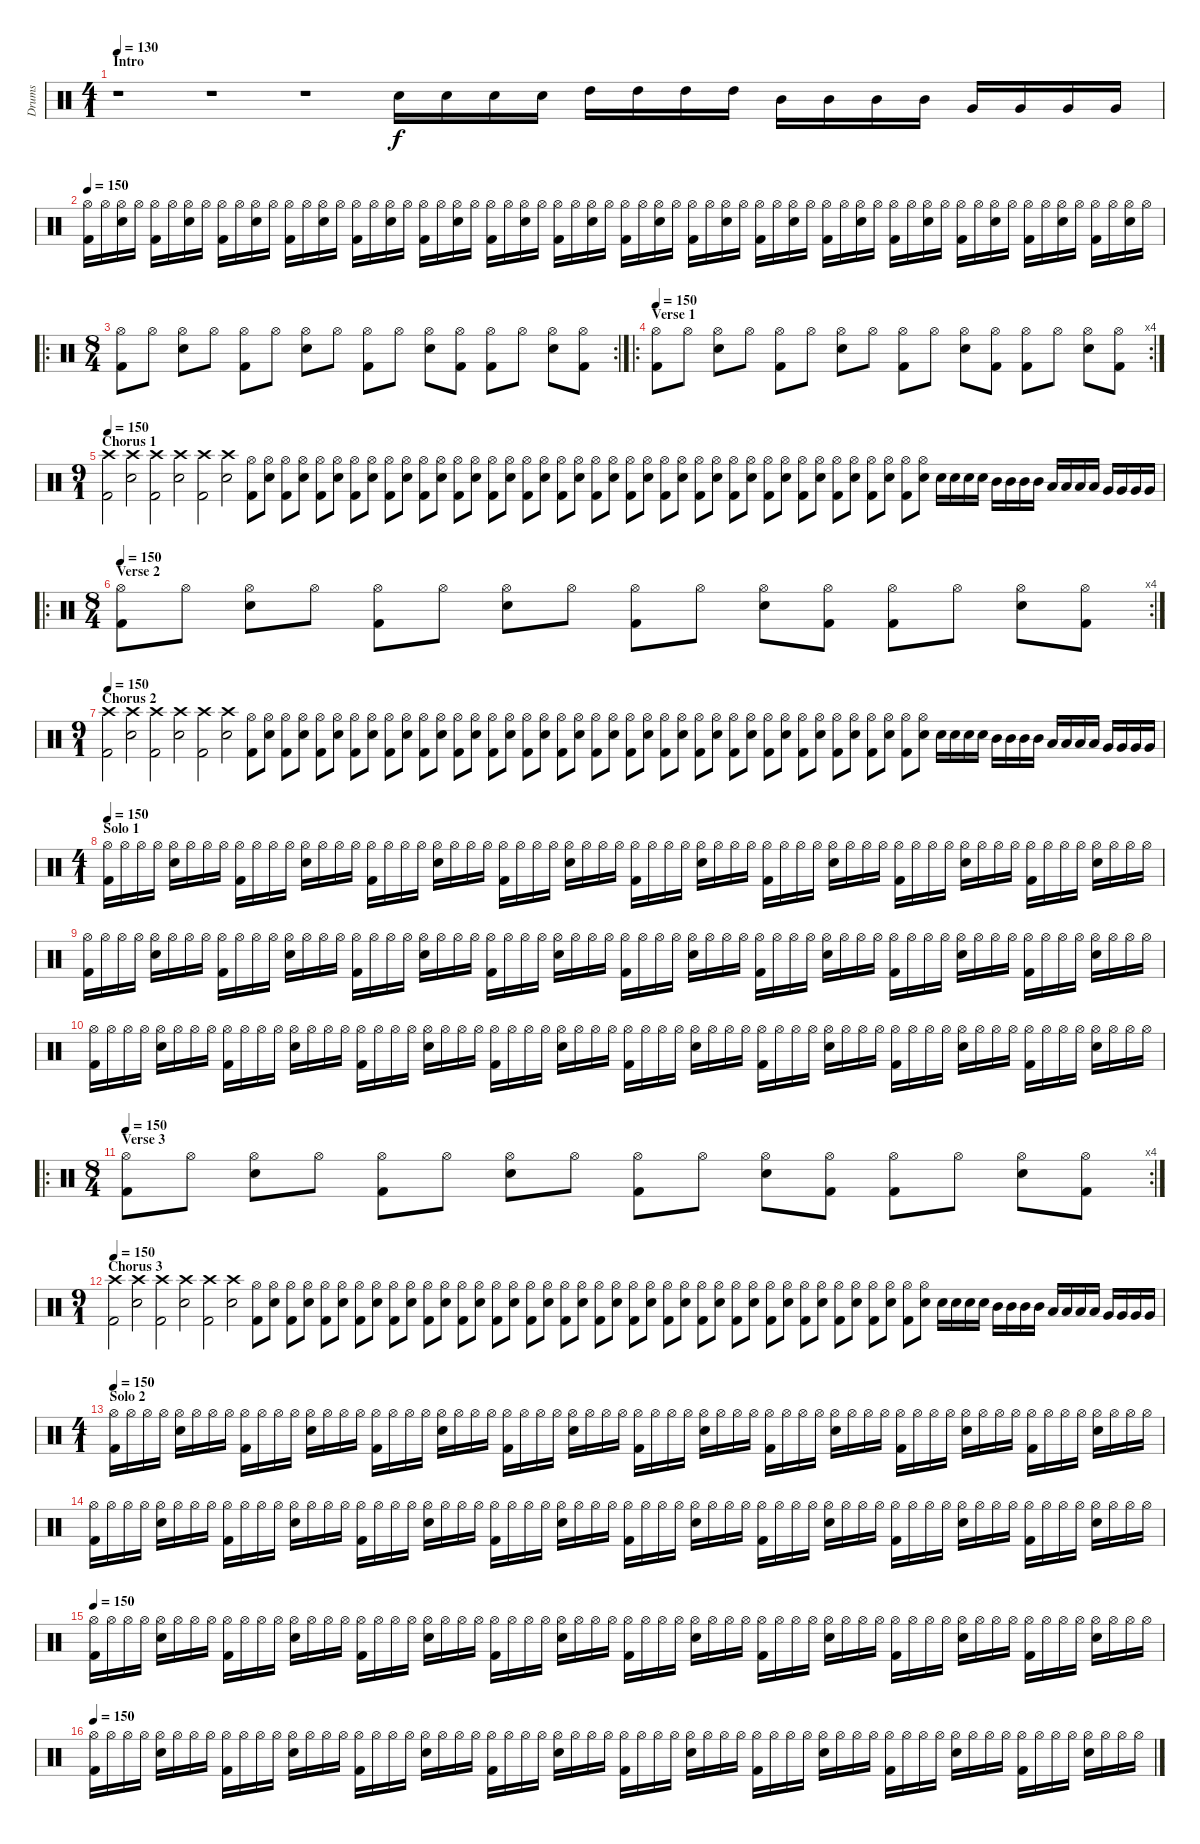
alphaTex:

\track ("Drums" "Drums") {instrument percussion}
\staff {score}
\articulation defaults
\ts (4 1)
\section ("" "Intro")
\tempo 130
\tempo 26
\tempo 130
\clef neutral
\ks c
r.1{dy f} r.1 r.1 "Electric Snare (hit)".16 "Electric Snare (hit)".16 "Electric Snare (hit)".16 "Electric Snare (hit)".16 "High Tom (hit)".16 "High Tom (hit)".16 "High Tom (hit)".16 "High Tom (hit)".16 "Mid Tom (hit)".16 "Mid Tom (hit)".16 "Mid Tom (hit)".16 "Mid Tom (hit)".16 "Very Low Tom (hit)".16 "Very Low Tom (hit)".16 "Very Low Tom (hit)".16 "Very Low Tom (hit)".16 |
\tempo 150
("Hi-Hat (open)" "Kick (hit) 2").16 "Hi-Hat (open)".16 ("Hi-Hat (open)" "Electric Snare (hit)").16 "Hi-Hat (open)".16 ("Hi-Hat (open)" "Kick (hit) 2").16 "Hi-Hat (open)".16 ("Hi-Hat (open)" "Electric Snare (hit)").16 "Hi-Hat (open)".16 ("Hi-Hat (open)" "Kick (hit) 2").16 "Hi-Hat (open)".16 ("Hi-Hat (open)" "Electric Snare (hit)").16 "Hi-Hat (open)".16 ("Hi-Hat (open)" "Kick (hit) 2").16 "Hi-Hat (open)".16 ("Hi-Hat (open)" "Electric Snare (hit)").16 "Hi-Hat (open)".16 ("Hi-Hat (open)" "Kick (hit) 2").16 "Hi-Hat (open)".16 ("Hi-Hat (open)" "Electric Snare (hit)").16 "Hi-Hat (open)".16 ("Hi-Hat (open)" "Kick (hit) 2").16 "Hi-Hat (open)".16 ("Hi-Hat (open)" "Electric Snare (hit)").16 "Hi-Hat (open)".16 ("Hi-Hat (open)" "Kick (hit) 2").16 "Hi-Hat (open)".16 ("Hi-Hat (open)" "Electric Snare (hit)").16 "Hi-Hat (open)".16 ("Hi-Hat (open)" "Kick (hit) 2").16 "Hi-Hat (open)".16 ("Hi-Hat (open)" "Electric Snare (hit)").16 "Hi-Hat (open)".16 ("Hi-Hat (open)" "Kick (hit) 2").16 "Hi-Hat (open)".16 ("Hi-Hat (open)" "Electric Snare (hit)").16 "Hi-Hat (open)".16 ("Hi-Hat (open)" "Kick (hit) 2").16 "Hi-Hat (open)".16 ("Hi-Hat (open)" "Electric Snare (hit)").16 "Hi-Hat (open)".16 ("Hi-Hat (open)" "Kick (hit) 2").16 "Hi-Hat (open)".16 ("Hi-Hat (open)" "Electric Snare (hit)").16 "Hi-Hat (open)".16 ("Hi-Hat (open)" "Kick (hit) 2").16 "Hi-Hat (open)".16 ("Hi-Hat (open)" "Electric Snare (hit)").16 "Hi-Hat (open)".16 ("Hi-Hat (open)" "Kick (hit) 2").16 "Hi-Hat (open)".16 ("Hi-Hat (open)" "Electric Snare (hit)").16 "Hi-Hat (open)".16 ("Hi-Hat (open)" "Kick (hit) 2").16 "Hi-Hat (open)".16 ("Hi-Hat (open)" "Electric Snare (hit)").16 "Hi-Hat (open)".16 ("Hi-Hat (open)" "Kick (hit) 2").16 "Hi-Hat (open)".16 ("Hi-Hat (open)" "Electric Snare (hit)").16 "Hi-Hat (open)".16 ("Hi-Hat (open)" "Kick (hit) 2").16 "Hi-Hat (open)".16 ("Hi-Hat (open)" "Electric Snare (hit)").16 "Hi-Hat (open)".16 |
\ro
\rc 2
\ts (8 4)
("Hi-Hat (open)" "Kick (hit) 2").8 "Hi-Hat (open)".8 ("Hi-Hat (open)" "Electric Snare (hit)").8 "Hi-Hat (open)".8 ("Hi-Hat (open)" "Kick (hit) 2").8 "Hi-Hat (open)".8 ("Hi-Hat (open)" "Electric Snare (hit)").8 "Hi-Hat (open)".8 ("Hi-Hat (open)" "Kick (hit) 2").8 "Hi-Hat (open)".8 ("Hi-Hat (open)" "Electric Snare (hit)").8 ("Hi-Hat (open)" "Kick (hit) 2").8 ("Hi-Hat (open)" "Kick (hit) 2").8 "Hi-Hat (open)".8 ("Hi-Hat (open)" "Electric Snare (hit)").8 ("Hi-Hat (open)" "Kick (hit) 2").8 |
\ro
\rc 4
\section ("" "Verse 1")
\tempo 150
("Hi-Hat (open)" "Kick (hit) 2").8 "Hi-Hat (open)".8 ("Hi-Hat (open)" "Electric Snare (hit)").8 "Hi-Hat (open)".8 ("Hi-Hat (open)" "Kick (hit) 2").8 "Hi-Hat (open)".8 ("Hi-Hat (open)" "Electric Snare (hit)").8 "Hi-Hat (open)".8 ("Hi-Hat (open)" "Kick (hit) 2").8 "Hi-Hat (open)".8 ("Hi-Hat (open)" "Electric Snare (hit)").8 ("Hi-Hat (open)" "Kick (hit) 2").8 ("Hi-Hat (open)" "Kick (hit) 2").8 "Hi-Hat (open)".8 ("Hi-Hat (open)" "Electric Snare (hit)").8 ("Hi-Hat (open)" "Kick (hit) 2").8 |
\ts (9 1)
\section ("" "Chorus 1")
\tempo 150
("Crash high (hit)" "Kick (hit) 2").2 ("Crash high (hit)" "Electric Snare (hit)").2 ("Crash high (hit)" "Kick (hit) 2").2 ("Crash high (hit)" "Electric Snare (hit)").2 ("Crash high (hit)" "Kick (hit) 2").2 ("Crash high (hit)" "Electric Snare (hit)").2 ("Hi-Hat (open)" "Kick (hit) 2").8 ("Hi-Hat (open)" "Electric Snare (hit)").8 ("Hi-Hat (open)" "Kick (hit) 2").8 ("Hi-Hat (open)" "Electric Snare (hit)").8 ("Hi-Hat (open)" "Kick (hit) 2").8 ("Hi-Hat (open)" "Electric Snare (hit)").8 ("Hi-Hat (open)" "Kick (hit) 2").8 ("Hi-Hat (open)" "Electric Snare (hit)").8 ("Hi-Hat (open)" "Kick (hit) 2").8 ("Hi-Hat (open)" "Electric Snare (hit)").8 ("Hi-Hat (open)" "Kick (hit) 2").8 ("Hi-Hat (open)" "Electric Snare (hit)").8 ("Hi-Hat (open)" "Kick (hit) 2").8 ("Hi-Hat (open)" "Electric Snare (hit)").8 ("Hi-Hat (open)" "Kick (hit) 2").8 ("Hi-Hat (open)" "Electric Snare (hit)").8 ("Hi-Hat (open)" "Kick (hit) 2").8 ("Hi-Hat (open)" "Electric Snare (hit)").8 ("Hi-Hat (open)" "Kick (hit) 2").8 ("Hi-Hat (open)" "Electric Snare (hit)").8 ("Hi-Hat (open)" "Kick (hit) 2").8 ("Hi-Hat (open)" "Electric Snare (hit)").8 ("Hi-Hat (open)" "Kick (hit) 2").8 ("Hi-Hat (open)" "Electric Snare (hit)").8 ("Hi-Hat (open)" "Kick (hit) 2").8 ("Hi-Hat (open)" "Electric Snare (hit)").8 ("Hi-Hat (open)" "Kick (hit) 2").8 ("Hi-Hat (open)" "Electric Snare (hit)").8 ("Hi-Hat (open)" "Kick (hit) 2").8 ("Hi-Hat (open)" "Electric Snare (hit)").8 ("Hi-Hat (open)" "Kick (hit) 2").8 ("Hi-Hat (open)" "Electric Snare (hit)").8 ("Hi-Hat (open)" "Kick (hit) 2").8 ("Hi-Hat (open)" "Electric Snare (hit)").8 ("Hi-Hat (open)" "Kick (hit) 2").8 ("Hi-Hat (open)" "Electric Snare (hit)").8 ("Hi-Hat (open)" "Kick (hit) 2").8 ("Hi-Hat (open)" "Electric Snare (hit)").8 ("Hi-Hat (open)" "Kick (hit) 2").8 ("Hi-Hat (open)" "Electric Snare (hit)").8 "Electric Snare (hit)".16 "Electric Snare (hit)".16 "Electric Snare (hit)".16 "Electric Snare (hit)".16 "Mid Tom (hit)".16 "Mid Tom (hit)".16 "Mid Tom (hit)".16 "Mid Tom (hit)".16 "Low Tom (hit)".16 "Low Tom (hit)".16 "Low Tom (hit)".16 "Low Tom (hit)".16 "Very Low Tom (hit)".16 "Very Low Tom (hit)".16 "Very Low Tom (hit)".16 "Very Low Tom (hit)".16 |
\ro
\rc 4
\ts (8 4)
\section ("" "Verse 2")
\tempo 150
("Hi-Hat (open)" "Kick (hit) 2").8 "Hi-Hat (open)".8 ("Hi-Hat (open)" "Electric Snare (hit)").8 "Hi-Hat (open)".8 ("Hi-Hat (open)" "Kick (hit) 2").8 "Hi-Hat (open)".8 ("Hi-Hat (open)" "Electric Snare (hit)").8 "Hi-Hat (open)".8 ("Hi-Hat (open)" "Kick (hit) 2").8 "Hi-Hat (open)".8 ("Hi-Hat (open)" "Electric Snare (hit)").8 ("Hi-Hat (open)" "Kick (hit) 2").8 ("Hi-Hat (open)" "Kick (hit) 2").8 "Hi-Hat (open)".8 ("Hi-Hat (open)" "Electric Snare (hit)").8 ("Hi-Hat (open)" "Kick (hit) 2").8 |
\ts (9 1)
\section ("" "Chorus 2")
\tempo 150
("Crash high (hit)" "Kick (hit) 2").2 ("Crash high (hit)" "Electric Snare (hit)").2 ("Crash high (hit)" "Kick (hit) 2").2 ("Crash high (hit)" "Electric Snare (hit)").2 ("Crash high (hit)" "Kick (hit) 2").2 ("Crash high (hit)" "Electric Snare (hit)").2 ("Hi-Hat (open)" "Kick (hit) 2").8 ("Hi-Hat (open)" "Electric Snare (hit)").8 ("Hi-Hat (open)" "Kick (hit) 2").8 ("Hi-Hat (open)" "Electric Snare (hit)").8 ("Hi-Hat (open)" "Kick (hit) 2").8 ("Hi-Hat (open)" "Electric Snare (hit)").8 ("Hi-Hat (open)" "Kick (hit) 2").8 ("Hi-Hat (open)" "Electric Snare (hit)").8 ("Hi-Hat (open)" "Kick (hit) 2").8 ("Hi-Hat (open)" "Electric Snare (hit)").8 ("Hi-Hat (open)" "Kick (hit) 2").8 ("Hi-Hat (open)" "Electric Snare (hit)").8 ("Hi-Hat (open)" "Kick (hit) 2").8 ("Hi-Hat (open)" "Electric Snare (hit)").8 ("Hi-Hat (open)" "Kick (hit) 2").8 ("Hi-Hat (open)" "Electric Snare (hit)").8 ("Hi-Hat (open)" "Kick (hit) 2").8 ("Hi-Hat (open)" "Electric Snare (hit)").8 ("Hi-Hat (open)" "Kick (hit) 2").8 ("Hi-Hat (open)" "Electric Snare (hit)").8 ("Hi-Hat (open)" "Kick (hit) 2").8 ("Hi-Hat (open)" "Electric Snare (hit)").8 ("Hi-Hat (open)" "Kick (hit) 2").8 ("Hi-Hat (open)" "Electric Snare (hit)").8 ("Hi-Hat (open)" "Kick (hit) 2").8 ("Hi-Hat (open)" "Electric Snare (hit)").8 ("Hi-Hat (open)" "Kick (hit) 2").8 ("Hi-Hat (open)" "Electric Snare (hit)").8 ("Hi-Hat (open)" "Kick (hit) 2").8 ("Hi-Hat (open)" "Electric Snare (hit)").8 ("Hi-Hat (open)" "Kick (hit) 2").8 ("Hi-Hat (open)" "Electric Snare (hit)").8 ("Hi-Hat (open)" "Kick (hit) 2").8 ("Hi-Hat (open)" "Electric Snare (hit)").8 ("Hi-Hat (open)" "Kick (hit) 2").8 ("Hi-Hat (open)" "Electric Snare (hit)").8 ("Hi-Hat (open)" "Kick (hit) 2").8 ("Hi-Hat (open)" "Electric Snare (hit)").8 ("Hi-Hat (open)" "Kick (hit) 2").8 ("Hi-Hat (open)" "Electric Snare (hit)").8 "Electric Snare (hit)".16 "Electric Snare (hit)".16 "Electric Snare (hit)".16 "Electric Snare (hit)".16 "Mid Tom (hit)".16 "Mid Tom (hit)".16 "Mid Tom (hit)".16 "Mid Tom (hit)".16 "Low Tom (hit)".16 "Low Tom (hit)".16 "Low Tom (hit)".16 "Low Tom (hit)".16 "Very Low Tom (hit)".16 "Very Low Tom (hit)".16 "Very Low Tom (hit)".16 "Very Low Tom (hit)".16 |
\ts (4 1)
\section ("" "Solo 1")
\tempo 150
("Hi-Hat (open)" "Kick (hit) 2").16 "Hi-Hat (open)".16 "Hi-Hat (open)".16 "Hi-Hat (open)".16 ("Hi-Hat (open)" "Electric Snare (hit)").16 "Hi-Hat (open)".16 "Hi-Hat (open)".16 "Hi-Hat (open)".16 ("Hi-Hat (open)" "Kick (hit) 2").16 "Hi-Hat (open)".16 "Hi-Hat (open)".16 "Hi-Hat (open)".16 ("Hi-Hat (open)" "Electric Snare (hit)").16 "Hi-Hat (open)".16 "Hi-Hat (open)".16 "Hi-Hat (open)".16 ("Hi-Hat (open)" "Kick (hit) 2").16 "Hi-Hat (open)".16 "Hi-Hat (open)".16 "Hi-Hat (open)".16 ("Hi-Hat (open)" "Electric Snare (hit)").16 "Hi-Hat (open)".16 "Hi-Hat (open)".16 "Hi-Hat (open)".16 ("Hi-Hat (open)" "Kick (hit) 2").16 "Hi-Hat (open)".16 "Hi-Hat (open)".16 "Hi-Hat (open)".16 ("Hi-Hat (open)" "Electric Snare (hit)").16 "Hi-Hat (open)".16 "Hi-Hat (open)".16 "Hi-Hat (open)".16 ("Hi-Hat (open)" "Kick (hit) 2").16 "Hi-Hat (open)".16 "Hi-Hat (open)".16 "Hi-Hat (open)".16 ("Hi-Hat (open)" "Electric Snare (hit)").16 "Hi-Hat (open)".16 "Hi-Hat (open)".16 "Hi-Hat (open)".16 ("Hi-Hat (open)" "Kick (hit) 2").16 "Hi-Hat (open)".16 "Hi-Hat (open)".16 "Hi-Hat (open)".16 ("Hi-Hat (open)" "Electric Snare (hit)").16 "Hi-Hat (open)".16 "Hi-Hat (open)".16 "Hi-Hat (open)".16 ("Hi-Hat (open)" "Kick (hit) 2").16 "Hi-Hat (open)".16 "Hi-Hat (open)".16 "Hi-Hat (open)".16 ("Hi-Hat (open)" "Electric Snare (hit)").16 "Hi-Hat (open)".16 "Hi-Hat (open)".16 "Hi-Hat (open)".16 ("Hi-Hat (open)" "Kick (hit) 2").16 "Hi-Hat (open)".16 "Hi-Hat (open)".16 "Hi-Hat (open)".16 ("Hi-Hat (open)" "Electric Snare (hit)").16 "Hi-Hat (open)".16 "Hi-Hat (open)".16 "Hi-Hat (open)".16 |
("Hi-Hat (open)" "Kick (hit) 2").16 "Hi-Hat (open)".16 "Hi-Hat (open)".16 "Hi-Hat (open)".16 ("Hi-Hat (open)" "Electric Snare (hit)").16 "Hi-Hat (open)".16 "Hi-Hat (open)".16 "Hi-Hat (open)".16 ("Hi-Hat (open)" "Kick (hit) 2").16 "Hi-Hat (open)".16 "Hi-Hat (open)".16 "Hi-Hat (open)".16 ("Hi-Hat (open)" "Electric Snare (hit)").16 "Hi-Hat (open)".16 "Hi-Hat (open)".16 "Hi-Hat (open)".16 ("Hi-Hat (open)" "Kick (hit) 2").16 "Hi-Hat (open)".16 "Hi-Hat (open)".16 "Hi-Hat (open)".16 ("Hi-Hat (open)" "Electric Snare (hit)").16 "Hi-Hat (open)".16 "Hi-Hat (open)".16 "Hi-Hat (open)".16 ("Hi-Hat (open)" "Kick (hit) 2").16 "Hi-Hat (open)".16 "Hi-Hat (open)".16 "Hi-Hat (open)".16 ("Hi-Hat (open)" "Electric Snare (hit)").16 "Hi-Hat (open)".16 "Hi-Hat (open)".16 "Hi-Hat (open)".16 ("Hi-Hat (open)" "Kick (hit) 2").16 "Hi-Hat (open)".16 "Hi-Hat (open)".16 "Hi-Hat (open)".16 ("Hi-Hat (open)" "Electric Snare (hit)").16 "Hi-Hat (open)".16 "Hi-Hat (open)".16 "Hi-Hat (open)".16 ("Hi-Hat (open)" "Kick (hit) 2").16 "Hi-Hat (open)".16 "Hi-Hat (open)".16 "Hi-Hat (open)".16 ("Hi-Hat (open)" "Electric Snare (hit)").16 "Hi-Hat (open)".16 "Hi-Hat (open)".16 "Hi-Hat (open)".16 ("Hi-Hat (open)" "Kick (hit) 2").16 "Hi-Hat (open)".16 "Hi-Hat (open)".16 "Hi-Hat (open)".16 ("Hi-Hat (open)" "Electric Snare (hit)").16 "Hi-Hat (open)".16 "Hi-Hat (open)".16 "Hi-Hat (open)".16 ("Hi-Hat (open)" "Kick (hit) 2").16 "Hi-Hat (open)".16 "Hi-Hat (open)".16 "Hi-Hat (open)".16 ("Hi-Hat (open)" "Electric Snare (hit)").16 "Hi-Hat (open)".16 "Hi-Hat (open)".16 "Hi-Hat (open)".16 |
("Hi-Hat (open)" "Kick (hit) 2").16 "Hi-Hat (open)".16 "Hi-Hat (open)".16 "Hi-Hat (open)".16 ("Hi-Hat (open)" "Electric Snare (hit)").16 "Hi-Hat (open)".16 "Hi-Hat (open)".16 "Hi-Hat (open)".16 ("Hi-Hat (open)" "Kick (hit) 2").16 "Hi-Hat (open)".16 "Hi-Hat (open)".16 "Hi-Hat (open)".16 ("Hi-Hat (open)" "Electric Snare (hit)").16 "Hi-Hat (open)".16 "Hi-Hat (open)".16 "Hi-Hat (open)".16 ("Hi-Hat (open)" "Kick (hit) 2").16 "Hi-Hat (open)".16 "Hi-Hat (open)".16 "Hi-Hat (open)".16 ("Hi-Hat (open)" "Electric Snare (hit)").16 "Hi-Hat (open)".16 "Hi-Hat (open)".16 "Hi-Hat (open)".16 ("Hi-Hat (open)" "Kick (hit) 2").16 "Hi-Hat (open)".16 "Hi-Hat (open)".16 "Hi-Hat (open)".16 ("Hi-Hat (open)" "Electric Snare (hit)").16 "Hi-Hat (open)".16 "Hi-Hat (open)".16 "Hi-Hat (open)".16 ("Hi-Hat (open)" "Kick (hit) 2").16 "Hi-Hat (open)".16 "Hi-Hat (open)".16 "Hi-Hat (open)".16 ("Hi-Hat (open)" "Electric Snare (hit)").16 "Hi-Hat (open)".16 "Hi-Hat (open)".16 "Hi-Hat (open)".16 ("Hi-Hat (open)" "Kick (hit) 2").16 "Hi-Hat (open)".16 "Hi-Hat (open)".16 "Hi-Hat (open)".16 ("Hi-Hat (open)" "Electric Snare (hit)").16 "Hi-Hat (open)".16 "Hi-Hat (open)".16 "Hi-Hat (open)".16 ("Hi-Hat (open)" "Kick (hit) 2").16 "Hi-Hat (open)".16 "Hi-Hat (open)".16 "Hi-Hat (open)".16 ("Hi-Hat (open)" "Electric Snare (hit)").16 "Hi-Hat (open)".16 "Hi-Hat (open)".16 "Hi-Hat (open)".16 ("Hi-Hat (open)" "Kick (hit) 2").16 "Hi-Hat (open)".16 "Hi-Hat (open)".16 "Hi-Hat (open)".16 ("Hi-Hat (open)" "Electric Snare (hit)").16 "Hi-Hat (open)".16 "Hi-Hat (open)".16 "Hi-Hat (open)".16 |
\ro
\rc 4
\ts (8 4)
\section ("" "Verse 3")
\tempo 150
("Hi-Hat (open)" "Kick (hit) 2").8 "Hi-Hat (open)".8 ("Hi-Hat (open)" "Electric Snare (hit)").8 "Hi-Hat (open)".8 ("Hi-Hat (open)" "Kick (hit) 2").8 "Hi-Hat (open)".8 ("Hi-Hat (open)" "Electric Snare (hit)").8 "Hi-Hat (open)".8 ("Hi-Hat (open)" "Kick (hit) 2").8 "Hi-Hat (open)".8 ("Hi-Hat (open)" "Electric Snare (hit)").8 ("Hi-Hat (open)" "Kick (hit) 2").8 ("Hi-Hat (open)" "Kick (hit) 2").8 "Hi-Hat (open)".8 ("Hi-Hat (open)" "Electric Snare (hit)").8 ("Hi-Hat (open)" "Kick (hit) 2").8 |
\ts (9 1)
\section ("" "Chorus 3")
\tempo 150
("Crash high (hit)" "Kick (hit) 2").2 ("Crash high (hit)" "Electric Snare (hit)").2 ("Crash high (hit)" "Kick (hit) 2").2 ("Crash high (hit)" "Electric Snare (hit)").2 ("Crash high (hit)" "Kick (hit) 2").2 ("Crash high (hit)" "Electric Snare (hit)").2 ("Hi-Hat (open)" "Kick (hit) 2").8 ("Hi-Hat (open)" "Electric Snare (hit)").8 ("Hi-Hat (open)" "Kick (hit) 2").8 ("Hi-Hat (open)" "Electric Snare (hit)").8 ("Hi-Hat (open)" "Kick (hit) 2").8 ("Hi-Hat (open)" "Electric Snare (hit)").8 ("Hi-Hat (open)" "Kick (hit) 2").8 ("Hi-Hat (open)" "Electric Snare (hit)").8 ("Hi-Hat (open)" "Kick (hit) 2").8 ("Hi-Hat (open)" "Electric Snare (hit)").8 ("Hi-Hat (open)" "Kick (hit) 2").8 ("Hi-Hat (open)" "Electric Snare (hit)").8 ("Hi-Hat (open)" "Kick (hit) 2").8 ("Hi-Hat (open)" "Electric Snare (hit)").8 ("Hi-Hat (open)" "Kick (hit) 2").8 ("Hi-Hat (open)" "Electric Snare (hit)").8 ("Hi-Hat (open)" "Kick (hit) 2").8 ("Hi-Hat (open)" "Electric Snare (hit)").8 ("Hi-Hat (open)" "Kick (hit) 2").8 ("Hi-Hat (open)" "Electric Snare (hit)").8 ("Hi-Hat (open)" "Kick (hit) 2").8 ("Hi-Hat (open)" "Electric Snare (hit)").8 ("Hi-Hat (open)" "Kick (hit) 2").8 ("Hi-Hat (open)" "Electric Snare (hit)").8 ("Hi-Hat (open)" "Kick (hit) 2").8 ("Hi-Hat (open)" "Electric Snare (hit)").8 ("Hi-Hat (open)" "Kick (hit) 2").8 ("Hi-Hat (open)" "Electric Snare (hit)").8 ("Hi-Hat (open)" "Kick (hit) 2").8 ("Hi-Hat (open)" "Electric Snare (hit)").8 ("Hi-Hat (open)" "Kick (hit) 2").8 ("Hi-Hat (open)" "Electric Snare (hit)").8 ("Hi-Hat (open)" "Kick (hit) 2").8 ("Hi-Hat (open)" "Electric Snare (hit)").8 ("Hi-Hat (open)" "Kick (hit) 2").8 ("Hi-Hat (open)" "Electric Snare (hit)").8 ("Hi-Hat (open)" "Kick (hit) 2").8 ("Hi-Hat (open)" "Electric Snare (hit)").8 ("Hi-Hat (open)" "Kick (hit) 2").8 ("Hi-Hat (open)" "Electric Snare (hit)").8 "Electric Snare (hit)".16 "Electric Snare (hit)".16 "Electric Snare (hit)".16 "Electric Snare (hit)".16 "Mid Tom (hit)".16 "Mid Tom (hit)".16 "Mid Tom (hit)".16 "Mid Tom (hit)".16 "Low Tom (hit)".16 "Low Tom (hit)".16 "Low Tom (hit)".16 "Low Tom (hit)".16 "Very Low Tom (hit)".16 "Very Low Tom (hit)".16 "Very Low Tom (hit)".16 "Very Low Tom (hit)".16 |
\ts (4 1)
\section ("" "Solo 2")
\tempo 150
("Hi-Hat (open)" "Kick (hit) 2").16 "Hi-Hat (open)".16 "Hi-Hat (open)".16 "Hi-Hat (open)".16 ("Hi-Hat (open)" "Electric Snare (hit)").16 "Hi-Hat (open)".16 "Hi-Hat (open)".16 "Hi-Hat (open)".16 ("Hi-Hat (open)" "Kick (hit) 2").16 "Hi-Hat (open)".16 "Hi-Hat (open)".16 "Hi-Hat (open)".16 ("Hi-Hat (open)" "Electric Snare (hit)").16 "Hi-Hat (open)".16 "Hi-Hat (open)".16 "Hi-Hat (open)".16 ("Hi-Hat (open)" "Kick (hit) 2").16 "Hi-Hat (open)".16 "Hi-Hat (open)".16 "Hi-Hat (open)".16 ("Hi-Hat (open)" "Electric Snare (hit)").16 "Hi-Hat (open)".16 "Hi-Hat (open)".16 "Hi-Hat (open)".16 ("Hi-Hat (open)" "Kick (hit) 2").16 "Hi-Hat (open)".16 "Hi-Hat (open)".16 "Hi-Hat (open)".16 ("Hi-Hat (open)" "Electric Snare (hit)").16 "Hi-Hat (open)".16 "Hi-Hat (open)".16 "Hi-Hat (open)".16 ("Hi-Hat (open)" "Kick (hit) 2").16 "Hi-Hat (open)".16 "Hi-Hat (open)".16 "Hi-Hat (open)".16 ("Hi-Hat (open)" "Electric Snare (hit)").16 "Hi-Hat (open)".16 "Hi-Hat (open)".16 "Hi-Hat (open)".16 ("Hi-Hat (open)" "Kick (hit) 2").16 "Hi-Hat (open)".16 "Hi-Hat (open)".16 "Hi-Hat (open)".16 ("Hi-Hat (open)" "Electric Snare (hit)").16 "Hi-Hat (open)".16 "Hi-Hat (open)".16 "Hi-Hat (open)".16 ("Hi-Hat (open)" "Kick (hit) 2").16 "Hi-Hat (open)".16 "Hi-Hat (open)".16 "Hi-Hat (open)".16 ("Hi-Hat (open)" "Electric Snare (hit)").16 "Hi-Hat (open)".16 "Hi-Hat (open)".16 "Hi-Hat (open)".16 ("Hi-Hat (open)" "Kick (hit) 2").16 "Hi-Hat (open)".16 "Hi-Hat (open)".16 "Hi-Hat (open)".16 ("Hi-Hat (open)" "Electric Snare (hit)").16 "Hi-Hat (open)".16 "Hi-Hat (open)".16 "Hi-Hat (open)".16 |
("Hi-Hat (open)" "Kick (hit) 2").16 "Hi-Hat (open)".16 "Hi-Hat (open)".16 "Hi-Hat (open)".16 ("Hi-Hat (open)" "Electric Snare (hit)").16 "Hi-Hat (open)".16 "Hi-Hat (open)".16 "Hi-Hat (open)".16 ("Hi-Hat (open)" "Kick (hit) 2").16 "Hi-Hat (open)".16 "Hi-Hat (open)".16 "Hi-Hat (open)".16 ("Hi-Hat (open)" "Electric Snare (hit)").16 "Hi-Hat (open)".16 "Hi-Hat (open)".16 "Hi-Hat (open)".16 ("Hi-Hat (open)" "Kick (hit) 2").16 "Hi-Hat (open)".16 "Hi-Hat (open)".16 "Hi-Hat (open)".16 ("Hi-Hat (open)" "Electric Snare (hit)").16 "Hi-Hat (open)".16 "Hi-Hat (open)".16 "Hi-Hat (open)".16 ("Hi-Hat (open)" "Kick (hit) 2").16 "Hi-Hat (open)".16 "Hi-Hat (open)".16 "Hi-Hat (open)".16 ("Hi-Hat (open)" "Electric Snare (hit)").16 "Hi-Hat (open)".16 "Hi-Hat (open)".16 "Hi-Hat (open)".16 ("Hi-Hat (open)" "Kick (hit) 2").16 "Hi-Hat (open)".16 "Hi-Hat (open)".16 "Hi-Hat (open)".16 ("Hi-Hat (open)" "Electric Snare (hit)").16 "Hi-Hat (open)".16 "Hi-Hat (open)".16 "Hi-Hat (open)".16 ("Hi-Hat (open)" "Kick (hit) 2").16 "Hi-Hat (open)".16 "Hi-Hat (open)".16 "Hi-Hat (open)".16 ("Hi-Hat (open)" "Electric Snare (hit)").16 "Hi-Hat (open)".16 "Hi-Hat (open)".16 "Hi-Hat (open)".16 ("Hi-Hat (open)" "Kick (hit) 2").16 "Hi-Hat (open)".16 "Hi-Hat (open)".16 "Hi-Hat (open)".16 ("Hi-Hat (open)" "Electric Snare (hit)").16 "Hi-Hat (open)".16 "Hi-Hat (open)".16 "Hi-Hat (open)".16 ("Hi-Hat (open)" "Kick (hit) 2").16 "Hi-Hat (open)".16 "Hi-Hat (open)".16 "Hi-Hat (open)".16 ("Hi-Hat (open)" "Electric Snare (hit)").16 "Hi-Hat (open)".16 "Hi-Hat (open)".16 "Hi-Hat (open)".16 |
\tempo 150
("Hi-Hat (open)" "Kick (hit) 2").16 "Hi-Hat (open)".16 "Hi-Hat (open)".16 "Hi-Hat (open)".16 ("Hi-Hat (open)" "Electric Snare (hit)").16 "Hi-Hat (open)".16 "Hi-Hat (open)".16 "Hi-Hat (open)".16 ("Hi-Hat (open)" "Kick (hit) 2").16 "Hi-Hat (open)".16 "Hi-Hat (open)".16 "Hi-Hat (open)".16 ("Hi-Hat (open)" "Electric Snare (hit)").16 "Hi-Hat (open)".16 "Hi-Hat (open)".16 "Hi-Hat (open)".16 ("Hi-Hat (open)" "Kick (hit) 2").16 "Hi-Hat (open)".16 "Hi-Hat (open)".16 "Hi-Hat (open)".16 ("Hi-Hat (open)" "Electric Snare (hit)").16 "Hi-Hat (open)".16 "Hi-Hat (open)".16 "Hi-Hat (open)".16 ("Hi-Hat (open)" "Kick (hit) 2").16 "Hi-Hat (open)".16 "Hi-Hat (open)".16 "Hi-Hat (open)".16 ("Hi-Hat (open)" "Electric Snare (hit)").16 "Hi-Hat (open)".16 "Hi-Hat (open)".16 "Hi-Hat (open)".16 ("Hi-Hat (open)" "Kick (hit) 2").16 "Hi-Hat (open)".16 "Hi-Hat (open)".16 "Hi-Hat (open)".16 ("Hi-Hat (open)" "Electric Snare (hit)").16 "Hi-Hat (open)".16 "Hi-Hat (open)".16 "Hi-Hat (open)".16 ("Hi-Hat (open)" "Kick (hit) 2").16 "Hi-Hat (open)".16 "Hi-Hat (open)".16 "Hi-Hat (open)".16 ("Hi-Hat (open)" "Electric Snare (hit)").16 "Hi-Hat (open)".16 "Hi-Hat (open)".16 "Hi-Hat (open)".16 ("Hi-Hat (open)" "Kick (hit) 2").16 "Hi-Hat (open)".16 "Hi-Hat (open)".16 "Hi-Hat (open)".16 ("Hi-Hat (open)" "Electric Snare (hit)").16 "Hi-Hat (open)".16 "Hi-Hat (open)".16 "Hi-Hat (open)".16 ("Hi-Hat (open)" "Kick (hit) 2").16 "Hi-Hat (open)".16 "Hi-Hat (open)".16 "Hi-Hat (open)".16 ("Hi-Hat (open)" "Electric Snare (hit)").16 "Hi-Hat (open)".16 "Hi-Hat (open)".16 "Hi-Hat (open)".16 |
\tempo 150
("Hi-Hat (open)" "Kick (hit) 2").16 "Hi-Hat (open)".16 "Hi-Hat (open)".16 "Hi-Hat (open)".16 ("Hi-Hat (open)" "Electric Snare (hit)").16 "Hi-Hat (open)".16 "Hi-Hat (open)".16 "Hi-Hat (open)".16 ("Hi-Hat (open)" "Kick (hit) 2").16 "Hi-Hat (open)".16 "Hi-Hat (open)".16 "Hi-Hat (open)".16 ("Hi-Hat (open)" "Electric Snare (hit)").16 "Hi-Hat (open)".16 "Hi-Hat (open)".16 "Hi-Hat (open)".16 ("Hi-Hat (open)" "Kick (hit) 2").16 "Hi-Hat (open)".16 "Hi-Hat (open)".16 "Hi-Hat (open)".16 ("Hi-Hat (open)" "Electric Snare (hit)").16 "Hi-Hat (open)".16 "Hi-Hat (open)".16 "Hi-Hat (open)".16 ("Hi-Hat (open)" "Kick (hit) 2").16 "Hi-Hat (open)".16 "Hi-Hat (open)".16 "Hi-Hat (open)".16 ("Hi-Hat (open)" "Electric Snare (hit)").16 "Hi-Hat (open)".16 "Hi-Hat (open)".16 "Hi-Hat (open)".16 ("Hi-Hat (open)" "Kick (hit) 2").16 "Hi-Hat (open)".16 "Hi-Hat (open)".16 "Hi-Hat (open)".16 ("Hi-Hat (open)" "Electric Snare (hit)").16 "Hi-Hat (open)".16 "Hi-Hat (open)".16 "Hi-Hat (open)".16 ("Hi-Hat (open)" "Kick (hit) 2").16 "Hi-Hat (open)".16 "Hi-Hat (open)".16 "Hi-Hat (open)".16 ("Hi-Hat (open)" "Electric Snare (hit)").16 "Hi-Hat (open)".16 "Hi-Hat (open)".16 "Hi-Hat (open)".16 ("Hi-Hat (open)" "Kick (hit) 2").16 "Hi-Hat (open)".16 "Hi-Hat (open)".16 "Hi-Hat (open)".16 ("Hi-Hat (open)" "Electric Snare (hit)").16 "Hi-Hat (open)".16 "Hi-Hat (open)".16 "Hi-Hat (open)".16 ("Hi-Hat (open)" "Kick (hit) 2").16 "Hi-Hat (open)".16 "Hi-Hat (open)".16 "Hi-Hat (open)".16 ("Hi-Hat (open)" "Electric Snare (hit)").16 "Hi-Hat (open)".16 "Hi-Hat (open)".16 "Hi-Hat (open)".16
